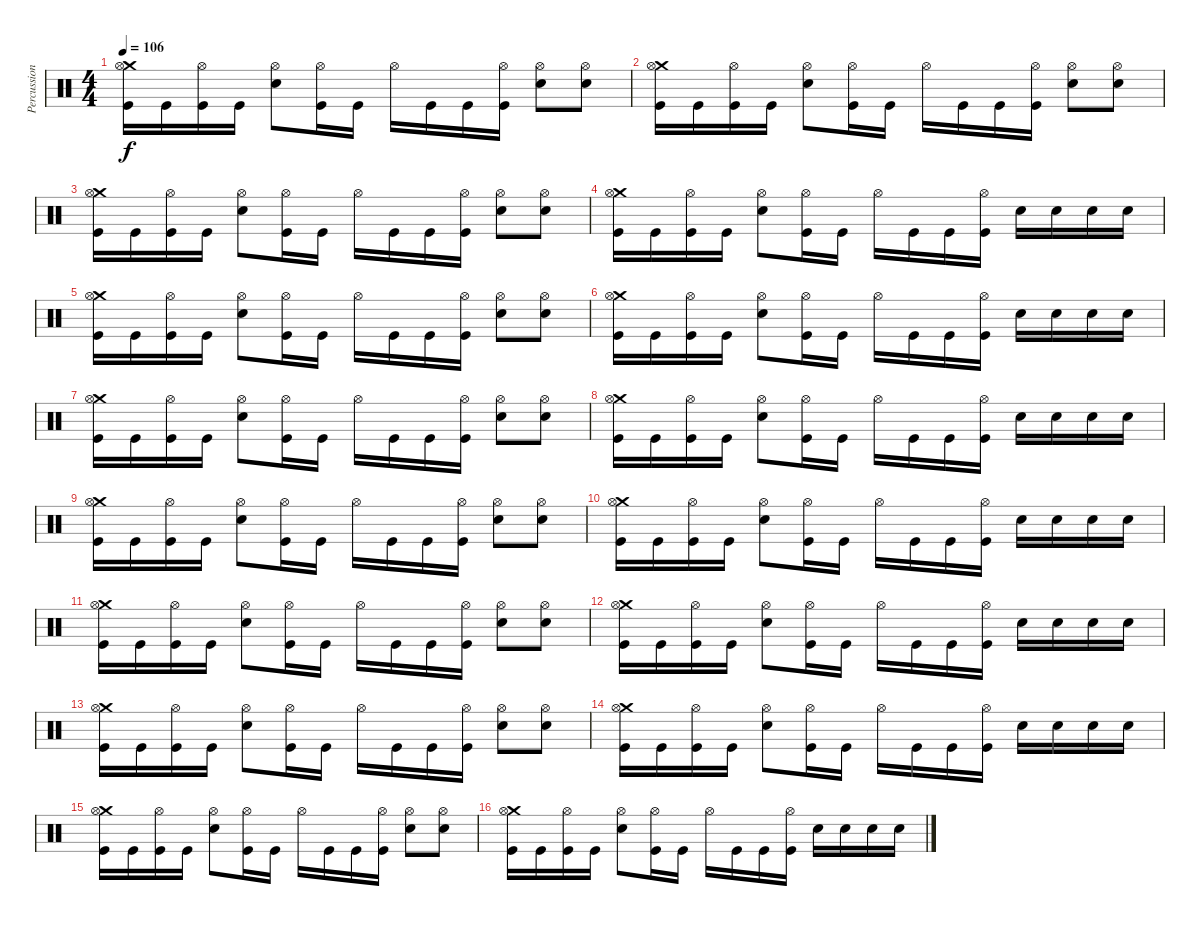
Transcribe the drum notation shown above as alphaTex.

\track ("Percussions" "Percussion") {instrument percussion}
\staff {score}
\articulation defaults
\ts (4 4)
\tempo 106
\clef neutral
\ks c
("Crash medium (hit)" "Hi-Hat (open)" "Kick (hit)").16{dy f} "Kick (hit)".16 ("Hi-Hat (open)" "Kick (hit)").16 "Kick (hit)".16 ("Hi-Hat (open)" "Electric Snare (hit)").8 ("Hi-Hat (open)" "Kick (hit)").16 "Kick (hit)".16 "Hi-Hat (open)".16 "Kick (hit)".16 "Kick (hit)".16 ("Hi-Hat (open)" "Kick (hit)").16 ("Hi-Hat (open)" "Electric Snare (hit)").8 ("Hi-Hat (open)" "Electric Snare (hit)").8 |
("Crash medium (hit)" "Hi-Hat (open)" "Kick (hit)").16 "Kick (hit)".16 ("Hi-Hat (open)" "Kick (hit)").16 "Kick (hit)".16 ("Hi-Hat (open)" "Electric Snare (hit)").8 ("Hi-Hat (open)" "Kick (hit)").16 "Kick (hit)".16 "Hi-Hat (open)".16 "Kick (hit)".16 "Kick (hit)".16 ("Hi-Hat (open)" "Kick (hit)").16 ("Hi-Hat (open)" "Electric Snare (hit)").8 ("Hi-Hat (open)" "Electric Snare (hit)").8 |
("Crash medium (hit)" "Hi-Hat (open)" "Kick (hit)").16 "Kick (hit)".16 ("Hi-Hat (open)" "Kick (hit)").16 "Kick (hit)".16 ("Hi-Hat (open)" "Electric Snare (hit)").8 ("Hi-Hat (open)" "Kick (hit)").16 "Kick (hit)".16 "Hi-Hat (open)".16 "Kick (hit)".16 "Kick (hit)".16 ("Hi-Hat (open)" "Kick (hit)").16 ("Hi-Hat (open)" "Electric Snare (hit)").8 ("Hi-Hat (open)" "Electric Snare (hit)").8 |
("Crash medium (hit)" "Hi-Hat (open)" "Kick (hit)").16 "Kick (hit)".16 ("Hi-Hat (open)" "Kick (hit)").16 "Kick (hit)".16 ("Hi-Hat (open)" "Electric Snare (hit)").8 ("Hi-Hat (open)" "Kick (hit)").16 "Kick (hit)".16 "Hi-Hat (open)".16 "Kick (hit)".16 "Kick (hit)".16 ("Hi-Hat (open)" "Kick (hit)").16 "Electric Snare (hit)".16 "Electric Snare (hit)".16 "Electric Snare (hit)".16 "Electric Snare (hit)".16 |
("Crash medium (hit)" "Hi-Hat (open)" "Kick (hit)").16 "Kick (hit)".16 ("Hi-Hat (open)" "Kick (hit)").16 "Kick (hit)".16 ("Hi-Hat (open)" "Electric Snare (hit)").8 ("Hi-Hat (open)" "Kick (hit)").16 "Kick (hit)".16 "Hi-Hat (open)".16 "Kick (hit)".16 "Kick (hit)".16 ("Hi-Hat (open)" "Kick (hit)").16 ("Hi-Hat (open)" "Electric Snare (hit)").8 ("Hi-Hat (open)" "Electric Snare (hit)").8 |
("Crash medium (hit)" "Hi-Hat (open)" "Kick (hit)").16 "Kick (hit)".16 ("Hi-Hat (open)" "Kick (hit)").16 "Kick (hit)".16 ("Hi-Hat (open)" "Electric Snare (hit)").8 ("Hi-Hat (open)" "Kick (hit)").16 "Kick (hit)".16 "Hi-Hat (open)".16 "Kick (hit)".16 "Kick (hit)".16 ("Hi-Hat (open)" "Kick (hit)").16 "Electric Snare (hit)".16 "Electric Snare (hit)".16 "Electric Snare (hit)".16 "Electric Snare (hit)".16 |
("Crash medium (hit)" "Hi-Hat (open)" "Kick (hit)").16 "Kick (hit)".16 ("Hi-Hat (open)" "Kick (hit)").16 "Kick (hit)".16 ("Hi-Hat (open)" "Electric Snare (hit)").8 ("Hi-Hat (open)" "Kick (hit)").16 "Kick (hit)".16 "Hi-Hat (open)".16 "Kick (hit)".16 "Kick (hit)".16 ("Hi-Hat (open)" "Kick (hit)").16 ("Hi-Hat (open)" "Electric Snare (hit)").8 ("Hi-Hat (open)" "Electric Snare (hit)").8 |
("Crash medium (hit)" "Hi-Hat (open)" "Kick (hit)").16 "Kick (hit)".16 ("Hi-Hat (open)" "Kick (hit)").16 "Kick (hit)".16 ("Hi-Hat (open)" "Electric Snare (hit)").8 ("Hi-Hat (open)" "Kick (hit)").16 "Kick (hit)".16 "Hi-Hat (open)".16 "Kick (hit)".16 "Kick (hit)".16 ("Hi-Hat (open)" "Kick (hit)").16 "Electric Snare (hit)".16 "Electric Snare (hit)".16 "Electric Snare (hit)".16 "Electric Snare (hit)".16 |
("Crash medium (hit)" "Hi-Hat (open)" "Kick (hit)").16 "Kick (hit)".16 ("Hi-Hat (open)" "Kick (hit)").16 "Kick (hit)".16 ("Hi-Hat (open)" "Electric Snare (hit)").8 ("Hi-Hat (open)" "Kick (hit)").16 "Kick (hit)".16 "Hi-Hat (open)".16 "Kick (hit)".16 "Kick (hit)".16 ("Hi-Hat (open)" "Kick (hit)").16 ("Hi-Hat (open)" "Electric Snare (hit)").8 ("Hi-Hat (open)" "Electric Snare (hit)").8 |
("Crash medium (hit)" "Hi-Hat (open)" "Kick (hit)").16 "Kick (hit)".16 ("Hi-Hat (open)" "Kick (hit)").16 "Kick (hit)".16 ("Hi-Hat (open)" "Electric Snare (hit)").8 ("Hi-Hat (open)" "Kick (hit)").16 "Kick (hit)".16 "Hi-Hat (open)".16 "Kick (hit)".16 "Kick (hit)".16 ("Hi-Hat (open)" "Kick (hit)").16 "Electric Snare (hit)".16 "Electric Snare (hit)".16 "Electric Snare (hit)".16 "Electric Snare (hit)".16 |
("Crash medium (hit)" "Hi-Hat (open)" "Kick (hit)").16 "Kick (hit)".16 ("Hi-Hat (open)" "Kick (hit)").16 "Kick (hit)".16 ("Hi-Hat (open)" "Electric Snare (hit)").8 ("Hi-Hat (open)" "Kick (hit)").16 "Kick (hit)".16 "Hi-Hat (open)".16 "Kick (hit)".16 "Kick (hit)".16 ("Hi-Hat (open)" "Kick (hit)").16 ("Hi-Hat (open)" "Electric Snare (hit)").8 ("Hi-Hat (open)" "Electric Snare (hit)").8 |
("Crash medium (hit)" "Hi-Hat (open)" "Kick (hit)").16 "Kick (hit)".16 ("Hi-Hat (open)" "Kick (hit)").16 "Kick (hit)".16 ("Hi-Hat (open)" "Electric Snare (hit)").8 ("Hi-Hat (open)" "Kick (hit)").16 "Kick (hit)".16 "Hi-Hat (open)".16 "Kick (hit)".16 "Kick (hit)".16 ("Hi-Hat (open)" "Kick (hit)").16 "Electric Snare (hit)".16 "Electric Snare (hit)".16 "Electric Snare (hit)".16 "Electric Snare (hit)".16 |
("Crash medium (hit)" "Hi-Hat (open)" "Kick (hit)").16 "Kick (hit)".16 ("Hi-Hat (open)" "Kick (hit)").16 "Kick (hit)".16 ("Hi-Hat (open)" "Electric Snare (hit)").8 ("Hi-Hat (open)" "Kick (hit)").16 "Kick (hit)".16 "Hi-Hat (open)".16 "Kick (hit)".16 "Kick (hit)".16 ("Hi-Hat (open)" "Kick (hit)").16 ("Hi-Hat (open)" "Electric Snare (hit)").8 ("Hi-Hat (open)" "Electric Snare (hit)").8 |
("Crash medium (hit)" "Hi-Hat (open)" "Kick (hit)").16 "Kick (hit)".16 ("Hi-Hat (open)" "Kick (hit)").16 "Kick (hit)".16 ("Hi-Hat (open)" "Electric Snare (hit)").8 ("Hi-Hat (open)" "Kick (hit)").16 "Kick (hit)".16 "Hi-Hat (open)".16 "Kick (hit)".16 "Kick (hit)".16 ("Hi-Hat (open)" "Kick (hit)").16 "Electric Snare (hit)".16 "Electric Snare (hit)".16 "Electric Snare (hit)".16 "Electric Snare (hit)".16 |
("Crash medium (hit)" "Hi-Hat (open)" "Kick (hit)").16 "Kick (hit)".16 ("Hi-Hat (open)" "Kick (hit)").16 "Kick (hit)".16 ("Hi-Hat (open)" "Electric Snare (hit)").8 ("Hi-Hat (open)" "Kick (hit)").16 "Kick (hit)".16 "Hi-Hat (open)".16 "Kick (hit)".16 "Kick (hit)".16 ("Hi-Hat (open)" "Kick (hit)").16 ("Hi-Hat (open)" "Electric Snare (hit)").8 ("Hi-Hat (open)" "Electric Snare (hit)").8 |
("Crash medium (hit)" "Hi-Hat (open)" "Kick (hit)").16 "Kick (hit)".16 ("Hi-Hat (open)" "Kick (hit)").16 "Kick (hit)".16 ("Hi-Hat (open)" "Electric Snare (hit)").8 ("Hi-Hat (open)" "Kick (hit)").16 "Kick (hit)".16 "Hi-Hat (open)".16 "Kick (hit)".16 "Kick (hit)".16 ("Hi-Hat (open)" "Kick (hit)").16 "Electric Snare (hit)".16 "Electric Snare (hit)".16 "Electric Snare (hit)".16 "Electric Snare (hit)".16
